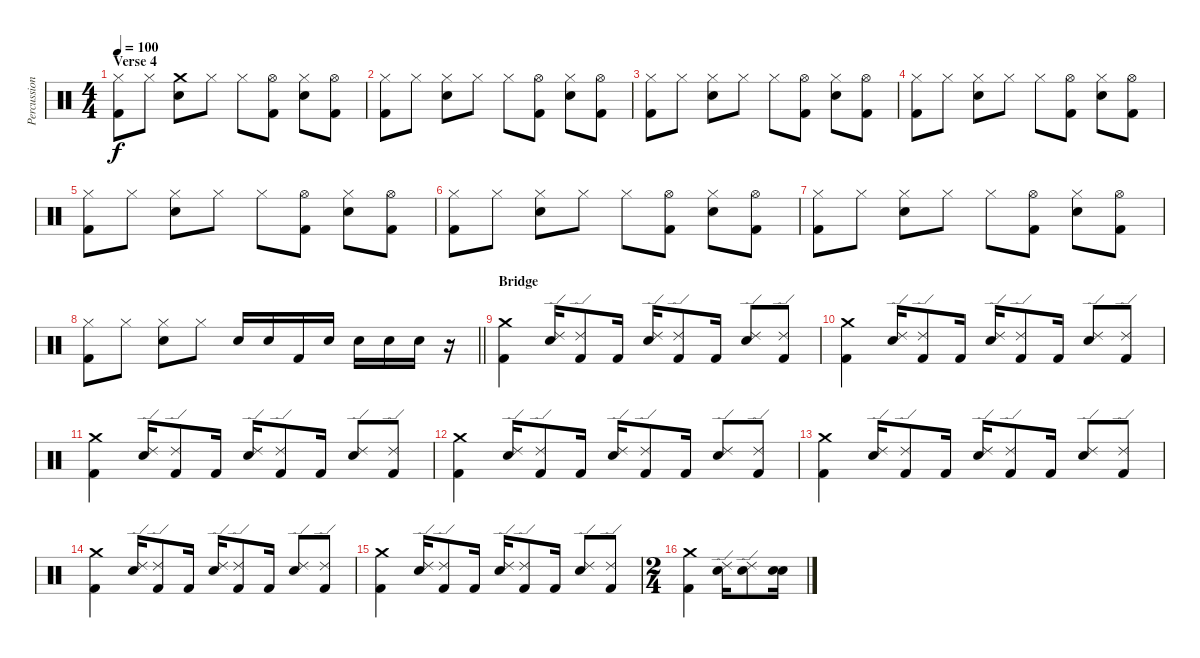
\track ("Percussion" "Percussion") {instrument percussion}
\staff {score}
\articulation defaults
\ts (4 4)
\section ("" "Verse 4")
\tempo 100
\clef neutral
\ks c
("Hi-Hat (closed)" "Kick (hit) 2").8{dy f} "Hi-Hat (closed)".8 ("Crash medium (hit)" "Snare (hit) 2").8 "Hi-Hat (closed)".8 "Hi-Hat (closed)".8 ("Hi-Hat (open)" "Kick (hit) 2").8 ("Hi-Hat (closed)" "Snare (hit) 2").8 ("Hi-Hat (open)" "Kick (hit) 2").8 |
("Hi-Hat (closed)" "Kick (hit) 2").8 "Hi-Hat (closed)".8 ("Hi-Hat (closed)" "Snare (hit) 2").8 "Hi-Hat (closed)".8 "Hi-Hat (closed)".8 ("Hi-Hat (open)" "Kick (hit) 2").8 ("Hi-Hat (closed)" "Snare (hit) 2").8 ("Hi-Hat (open)" "Kick (hit) 2").8 |
("Hi-Hat (closed)" "Kick (hit) 2").8 "Hi-Hat (closed)".8 ("Hi-Hat (closed)" "Snare (hit) 2").8 "Hi-Hat (closed)".8 "Hi-Hat (closed)".8 ("Hi-Hat (open)" "Kick (hit) 2").8 ("Hi-Hat (closed)" "Snare (hit) 2").8 ("Hi-Hat (open)" "Kick (hit) 2").8 |
("Hi-Hat (closed)" "Kick (hit) 2").8 "Hi-Hat (closed)".8 ("Hi-Hat (closed)" "Snare (hit) 2").8 "Hi-Hat (closed)".8 "Hi-Hat (closed)".8 ("Hi-Hat (open)" "Kick (hit) 2").8 ("Hi-Hat (closed)" "Snare (hit) 2").8 ("Hi-Hat (open)" "Kick (hit) 2").8 |
("Hi-Hat (closed)" "Kick (hit) 2").8 "Hi-Hat (closed)".8 ("Hi-Hat (closed)" "Snare (hit) 2").8 "Hi-Hat (closed)".8 "Hi-Hat (closed)".8 ("Hi-Hat (open)" "Kick (hit) 2").8 ("Hi-Hat (closed)" "Snare (hit) 2").8 ("Hi-Hat (open)" "Kick (hit) 2").8 |
("Hi-Hat (closed)" "Kick (hit) 2").8 "Hi-Hat (closed)".8 ("Hi-Hat (closed)" "Snare (hit) 2").8 "Hi-Hat (closed)".8 "Hi-Hat (closed)".8 ("Hi-Hat (open)" "Kick (hit) 2").8 ("Hi-Hat (closed)" "Snare (hit) 2").8 ("Hi-Hat (open)" "Kick (hit) 2").8 |
("Hi-Hat (closed)" "Kick (hit) 2").8 "Hi-Hat (closed)".8 ("Hi-Hat (closed)" "Snare (hit) 2").8 "Hi-Hat (closed)".8 "Hi-Hat (closed)".8 ("Hi-Hat (open)" "Kick (hit) 2").8 ("Hi-Hat (closed)" "Snare (hit) 2").8 ("Hi-Hat (open)" "Kick (hit) 2").8 |
\barLineRight lightlight
("Hi-Hat (closed)" "Kick (hit) 2").8 "Hi-Hat (closed)".8 ("Hi-Hat (closed)" "Snare (hit) 2").8 "Hi-Hat (closed)".8 "Snare (hit) 2".16 "Snare (hit) 2".16 "Kick (hit) 2".16 "Snare (hit) 2".16 "Snare (hit) 2".16 "Snare (hit) 2".16 "Snare (hit) 2".16 r.16 |
\section ("" "Bridge")
("Crash medium (hit)" "Kick (hit) 2").4 ("Ride (edge) 2" "Snare (hit) 2").16 ("Ride (edge) 2" "Kick (hit) 2").8 "Kick (hit) 2".16 ("Ride (edge) 2" "Snare (hit) 2").16 ("Ride (edge) 2" "Kick (hit) 2").8 "Kick (hit) 2".16 ("Ride (edge) 2" "Snare (hit) 2").8 ("Ride (edge) 2" "Kick (hit) 2").8 |
("Crash medium (hit)" "Kick (hit) 2").4 ("Ride (edge) 2" "Snare (hit) 2").16 ("Ride (edge) 2" "Kick (hit) 2").8 "Kick (hit) 2".16 ("Ride (edge) 2" "Snare (hit) 2").16 ("Ride (edge) 2" "Kick (hit) 2").8 "Kick (hit) 2".16 ("Ride (edge) 2" "Snare (hit) 2").8 ("Ride (edge) 2" "Kick (hit) 2").8 |
("Crash medium (hit)" "Kick (hit) 2").4 ("Ride (edge) 2" "Snare (hit) 2").16 ("Ride (edge) 2" "Kick (hit) 2").8 "Kick (hit) 2".16 ("Ride (edge) 2" "Snare (hit) 2").16 ("Ride (edge) 2" "Kick (hit) 2").8 "Kick (hit) 2".16 ("Ride (edge) 2" "Snare (hit) 2").8 ("Ride (edge) 2" "Kick (hit) 2").8 |
("Crash medium (hit)" "Kick (hit) 2").4 ("Ride (edge) 2" "Snare (hit) 2").16 ("Ride (edge) 2" "Kick (hit) 2").8 "Kick (hit) 2".16 ("Ride (edge) 2" "Snare (hit) 2").16 ("Ride (edge) 2" "Kick (hit) 2").8 "Kick (hit) 2".16 ("Ride (edge) 2" "Snare (hit) 2").8 ("Ride (edge) 2" "Kick (hit) 2").8 |
("Crash medium (hit)" "Kick (hit) 2").4 ("Ride (edge) 2" "Snare (hit) 2").16 ("Ride (edge) 2" "Kick (hit) 2").8 "Kick (hit) 2".16 ("Ride (edge) 2" "Snare (hit) 2").16 ("Ride (edge) 2" "Kick (hit) 2").8 "Kick (hit) 2".16 ("Ride (edge) 2" "Snare (hit) 2").8 ("Ride (edge) 2" "Kick (hit) 2").8 |
("Crash medium (hit)" "Kick (hit) 2").4 ("Ride (edge) 2" "Snare (hit) 2").16 ("Ride (edge) 2" "Kick (hit) 2").8 "Kick (hit) 2".16 ("Ride (edge) 2" "Snare (hit) 2").16 ("Ride (edge) 2" "Kick (hit) 2").8 "Kick (hit) 2".16 ("Ride (edge) 2" "Snare (hit) 2").8 ("Ride (edge) 2" "Kick (hit) 2").8 |
("Crash medium (hit)" "Kick (hit) 2").4 ("Ride (edge) 2" "Snare (hit) 2").16 ("Ride (edge) 2" "Kick (hit) 2").8 "Kick (hit) 2".16 ("Ride (edge) 2" "Snare (hit) 2").16 ("Ride (edge) 2" "Kick (hit) 2").8 "Kick (hit) 2".16 ("Ride (edge) 2" "Snare (hit) 2").8 ("Ride (edge) 2" "Kick (hit) 2").8 |
\ts (2 4)
("Crash medium (hit)" "Kick (hit) 2").4 ("Ride (edge) 2" "Snare (hit) 2").16 ("Ride (edge) 2" "Snare (hit) 2").8 ("Snare (hit)" "Snare (hit)").16
